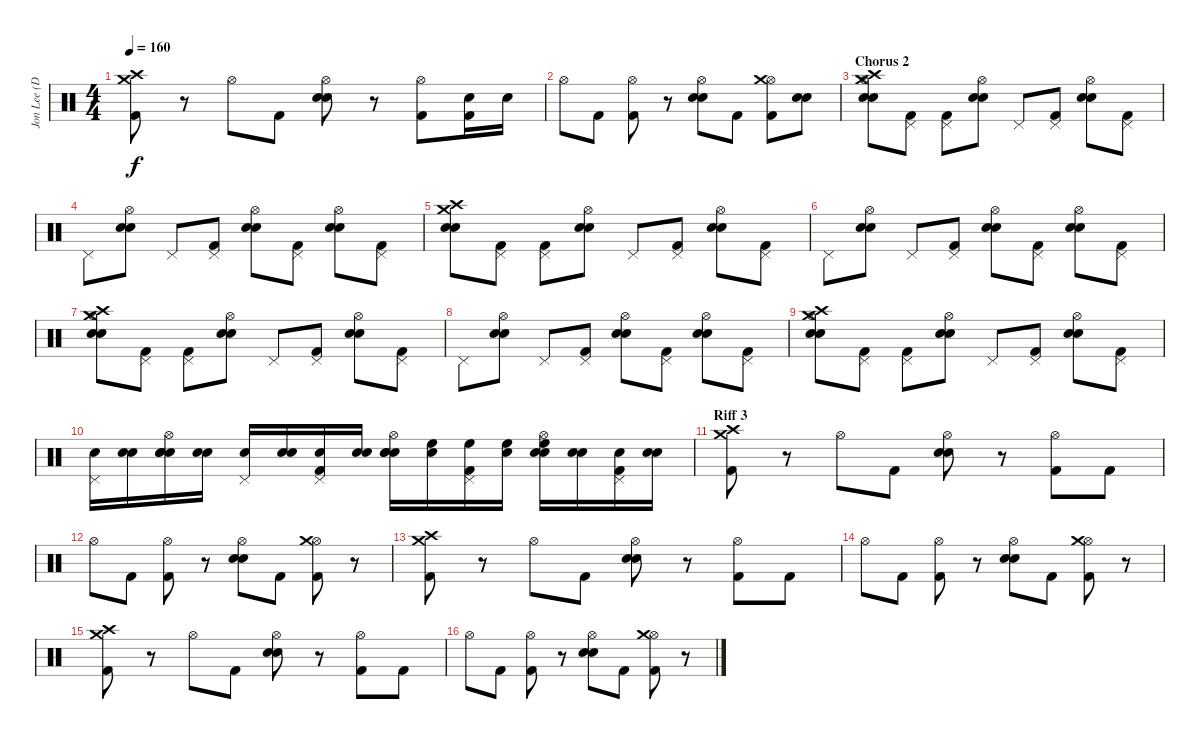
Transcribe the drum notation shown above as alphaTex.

\track ("Jon Lee (Drums)" "Jon Lee (D") {instrument percussion}
\staff {score}
\articulation defaults
\ts (4 4)
\tempo 160
\clef neutral
\ks c
("Crash high (hit)" "Crash medium (hit)" "Kick (hit) 2").8{dy f} r.8 "Hi-Hat (open)".8 "Kick (hit) 2".8 ("Hi-Hat (open)" "Electric Snare (hit)" "Snare (hit) 2").8 r.8 ("Hi-Hat (open)" "Kick (hit) 2").8 ("Electric Snare (hit)" "Kick (hit) 2").16 "Electric Snare (hit)".16 |
"Hi-Hat (open)".8 "Kick (hit) 2".8 ("Hi-Hat (open)" "Kick (hit) 2").8 r.8 ("Hi-Hat (open)" "Electric Snare (hit)" "Snare (hit) 2").8 "Kick (hit) 2".8 ("Hi-Hat (open)" "Crash medium (hit)" "Kick (hit) 2").8 ("Electric Snare (hit)" "Snare (hit) 2").8 |
\section ("" "Chorus 2")
("Snare (hit) 2" "Electric Snare (hit)" "Crash medium (hit)" "Hi-Hat (open)" "Crash high (hit)").8 ("Kick (hit) 2" "Pedal Hi-Hat (hit)").8 ("Kick (hit) 2" "Pedal Hi-Hat (hit)").8 ("Snare (hit) 2" "Electric Snare (hit)" "Hi-Hat (open)").8 "Pedal Hi-Hat (hit)".8 ("Kick (hit) 2" "Pedal Hi-Hat (hit)").8 ("Snare (hit) 2" "Electric Snare (hit)" "Hi-Hat (open)").8 ("Kick (hit) 2" "Pedal Hi-Hat (hit)").8 |
"Pedal Hi-Hat (hit)".8 ("Snare (hit) 2" "Electric Snare (hit)" "Hi-Hat (open)").8 "Pedal Hi-Hat (hit)".8 ("Kick (hit) 2" "Pedal Hi-Hat (hit)").8 ("Snare (hit) 2" "Electric Snare (hit)" "Hi-Hat (open)").8 ("Kick (hit) 2" "Pedal Hi-Hat (hit)").8 ("Snare (hit) 2" "Electric Snare (hit)" "Hi-Hat (open)").8 ("Kick (hit) 2" "Pedal Hi-Hat (hit)").8 |
("Snare (hit) 2" "Electric Snare (hit)" "Crash medium (hit)" "Crash high (hit)").8 ("Kick (hit) 2" "Pedal Hi-Hat (hit)").8 ("Kick (hit) 2" "Pedal Hi-Hat (hit)").8 ("Snare (hit) 2" "Electric Snare (hit)" "Hi-Hat (open)").8 "Pedal Hi-Hat (hit)".8 ("Kick (hit) 2" "Pedal Hi-Hat (hit)").8 ("Snare (hit) 2" "Electric Snare (hit)" "Hi-Hat (open)").8 ("Kick (hit) 2" "Pedal Hi-Hat (hit)").8 |
"Pedal Hi-Hat (hit)".8 ("Snare (hit) 2" "Electric Snare (hit)" "Hi-Hat (open)").8 "Pedal Hi-Hat (hit)".8 ("Kick (hit) 2" "Pedal Hi-Hat (hit)").8 ("Snare (hit) 2" "Electric Snare (hit)" "Hi-Hat (open)").8 ("Kick (hit) 2" "Pedal Hi-Hat (hit)").8 ("Snare (hit) 2" "Electric Snare (hit)" "Hi-Hat (open)").8 ("Kick (hit) 2" "Pedal Hi-Hat (hit)").8 |
("Snare (hit) 2" "Electric Snare (hit)" "Crash medium (hit)" "Hi-Hat (open)" "Crash high (hit)").8 ("Kick (hit) 2" "Pedal Hi-Hat (hit)").8 ("Kick (hit) 2" "Pedal Hi-Hat (hit)").8 ("Snare (hit) 2" "Electric Snare (hit)" "Hi-Hat (open)").8 "Pedal Hi-Hat (hit)".8 ("Kick (hit) 2" "Pedal Hi-Hat (hit)").8 ("Snare (hit) 2" "Electric Snare (hit)" "Hi-Hat (open)").8 ("Kick (hit) 2" "Pedal Hi-Hat (hit)").8 |
"Pedal Hi-Hat (hit)".8 ("Snare (hit) 2" "Electric Snare (hit)" "Hi-Hat (open)").8 "Pedal Hi-Hat (hit)".8 ("Kick (hit) 2" "Pedal Hi-Hat (hit)").8 ("Snare (hit) 2" "Electric Snare (hit)" "Hi-Hat (open)").8 ("Kick (hit) 2" "Pedal Hi-Hat (hit)").8 ("Snare (hit) 2" "Electric Snare (hit)" "Hi-Hat (open)").8 ("Kick (hit) 2" "Pedal Hi-Hat (hit)").8 |
("Snare (hit) 2" "Electric Snare (hit)" "Crash medium (hit)" "Hi-Hat (open)" "Crash high (hit)").8 ("Kick (hit) 2" "Pedal Hi-Hat (hit)").8 ("Kick (hit) 2" "Pedal Hi-Hat (hit)").8 ("Snare (hit) 2" "Electric Snare (hit)" "Hi-Hat (open)").8 "Pedal Hi-Hat (hit)".8 ("Kick (hit) 2" "Pedal Hi-Hat (hit)").8 ("Snare (hit) 2" "Electric Snare (hit)" "Hi-Hat (open)").8 ("Kick (hit) 2" "Pedal Hi-Hat (hit)").8 |
("Electric Snare (hit)" "Pedal Hi-Hat (hit)").16 ("Electric Snare (hit)" "Snare (hit) 2").16 ("Snare (hit) 2" "Electric Snare (hit)" "Electric Snare (hit)" "Hi-Hat (open)").16 ("Electric Snare (hit)" "Snare (hit) 2").16 ("Electric Snare (hit)" "Pedal Hi-Hat (hit)").16 ("Electric Snare (hit)" "Snare (hit) 2").16 ("Kick (hit) 2" "Electric Snare (hit)" "Pedal Hi-Hat (hit)").16 ("Electric Snare (hit)" "Snare (hit) 2").16 ("Snare (hit) 2" "Electric Snare (hit)" "Electric Snare (hit)" "Hi-Hat (open)").16 ("High Floor Tom (hit)" "Snare (hit) 2").16 ("Kick (hit) 2" "High Floor Tom (hit)" "Pedal Hi-Hat (hit)").16 ("High Floor Tom (hit)" "Snare (hit) 2").16 ("Snare (hit) 2" "Electric Snare (hit)" "High Floor Tom (hit)" "Hi-Hat (open)").16 ("Electric Snare (hit)" "Snare (hit) 2").16 ("Kick (hit) 2" "Electric Snare (hit)" "Pedal Hi-Hat (hit)").16 ("Electric Snare (hit)" "Snare (hit) 2").16 |
\section ("" "Riff 3")
("Crash high (hit)" "Crash medium (hit)" "Kick (hit) 2").8 r.8 "Hi-Hat (open)".8 "Kick (hit) 2".8 ("Hi-Hat (open)" "Electric Snare (hit)" "Snare (hit) 2").8 r.8 ("Hi-Hat (open)" "Kick (hit) 2").8 "Kick (hit) 2".8 |
"Hi-Hat (open)".8 "Kick (hit) 2".8 ("Hi-Hat (open)" "Kick (hit) 2").8 r.8 ("Hi-Hat (open)" "Electric Snare (hit)" "Snare (hit) 2").8 "Kick (hit) 2".8 ("Hi-Hat (open)" "Crash medium (hit)" "Kick (hit) 2").8 r.8 |
("Crash high (hit)" "Crash medium (hit)" "Kick (hit) 2").8 r.8 "Hi-Hat (open)".8 "Kick (hit) 2".8 ("Hi-Hat (open)" "Electric Snare (hit)" "Snare (hit) 2").8 r.8 ("Hi-Hat (open)" "Kick (hit) 2").8 "Kick (hit) 2".8 |
"Hi-Hat (open)".8 "Kick (hit) 2".8 ("Hi-Hat (open)" "Kick (hit) 2").8 r.8 ("Hi-Hat (open)" "Electric Snare (hit)" "Snare (hit) 2").8 "Kick (hit) 2".8 ("Hi-Hat (open)" "Crash medium (hit)" "Kick (hit) 2").8 r.8 |
("Crash high (hit)" "Crash medium (hit)" "Kick (hit) 2").8 r.8 "Hi-Hat (open)".8 "Kick (hit) 2".8 ("Hi-Hat (open)" "Electric Snare (hit)" "Snare (hit) 2").8 r.8 ("Hi-Hat (open)" "Kick (hit) 2").8 "Kick (hit) 2".8 |
"Hi-Hat (open)".8 "Kick (hit) 2".8 ("Hi-Hat (open)" "Kick (hit) 2").8 r.8 ("Hi-Hat (open)" "Electric Snare (hit)" "Snare (hit) 2").8 "Kick (hit) 2".8 ("Hi-Hat (open)" "Crash medium (hit)" "Kick (hit) 2").8 r.8
